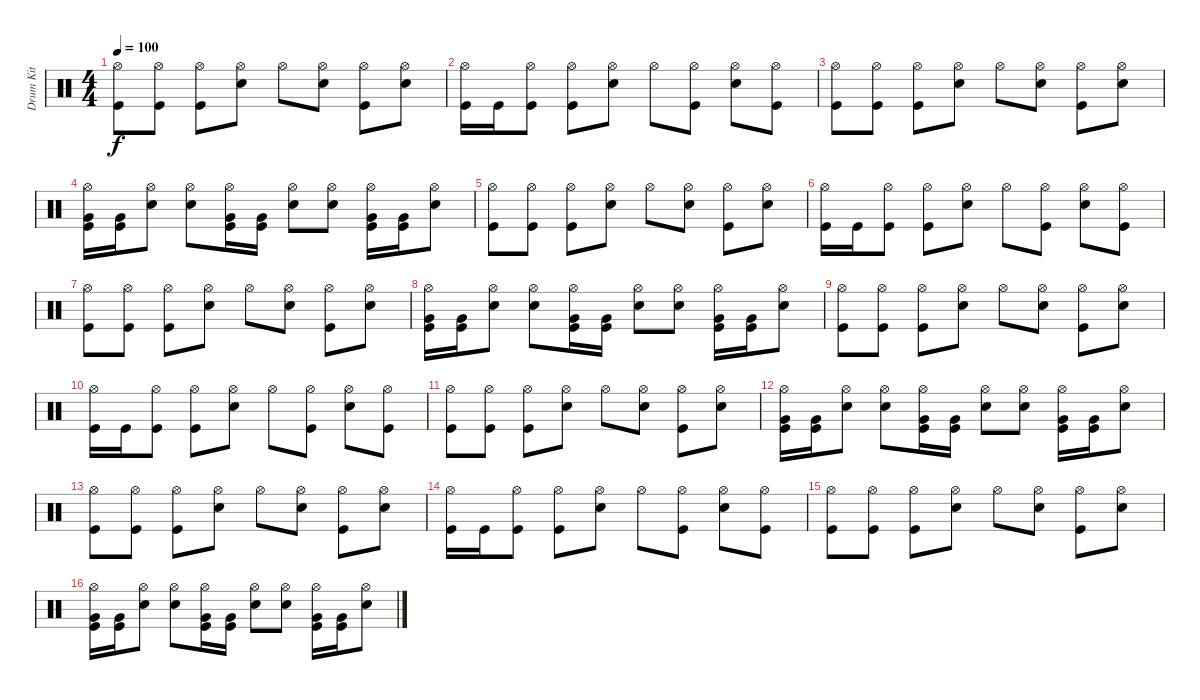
\track ("Drum Kit" "Drum Kit") {instrument percussion}
\staff {score}
\articulation defaults
\ts (4 4)
\tempo 100
\clef neutral
\ks c
("Hi-Hat (open)" "Kick (hit)").8{dy f} ("Hi-Hat (open)" "Kick (hit)").8 ("Hi-Hat (open)" "Kick (hit)").8 ("Hi-Hat (open)" "Snare (hit) 2").8 "Hi-Hat (open)".8 ("Hi-Hat (open)" "Snare (hit) 2").8 ("Hi-Hat (open)" "Kick (hit)").8 ("Hi-Hat (open)" "Snare (hit) 2").8 |
("Hi-Hat (open)" "Kick (hit)").16 "Kick (hit)".16 ("Hi-Hat (open)" "Kick (hit)").8 ("Hi-Hat (open)" "Kick (hit)").8 ("Hi-Hat (open)" "Snare (hit) 2").8 "Hi-Hat (open)".8 ("Hi-Hat (open)" "Kick (hit)").8 ("Hi-Hat (open)" "Snare (hit) 2").8 ("Hi-Hat (open)" "Kick (hit)").8 |
("Hi-Hat (open)" "Kick (hit)").8 ("Hi-Hat (open)" "Kick (hit)").8 ("Hi-Hat (open)" "Kick (hit)").8 ("Hi-Hat (open)" "Snare (hit) 2").8 "Hi-Hat (open)".8 ("Hi-Hat (open)" "Snare (hit) 2").8 ("Hi-Hat (open)" "Kick (hit)").8 ("Hi-Hat (open)" "Snare (hit) 2").8 |
("Hi-Hat (open)" "Very Low Tom (hit)" "Kick (hit)").16 ("Very Low Tom (hit)" "Kick (hit)").16 ("Hi-Hat (open)" "Snare (hit) 2").8 ("Hi-Hat (open)" "Snare (hit) 2").8 ("Hi-Hat (open)" "Very Low Tom (hit)" "Kick (hit)").16 ("Very Low Tom (hit)" "Kick (hit)").16 ("Hi-Hat (open)" "Snare (hit) 2").8 ("Hi-Hat (open)" "Snare (hit) 2").8 ("Hi-Hat (open)" "Very Low Tom (hit)" "Kick (hit)").16 ("Very Low Tom (hit)" "Kick (hit)").16 ("Hi-Hat (open)" "Snare (hit) 2").8 |
("Hi-Hat (open)" "Kick (hit)").8 ("Hi-Hat (open)" "Kick (hit)").8 ("Hi-Hat (open)" "Kick (hit)").8 ("Hi-Hat (open)" "Snare (hit) 2").8 "Hi-Hat (open)".8 ("Hi-Hat (open)" "Snare (hit) 2").8 ("Hi-Hat (open)" "Kick (hit)").8 ("Hi-Hat (open)" "Snare (hit) 2").8 |
("Hi-Hat (open)" "Kick (hit)").16 "Kick (hit)".16 ("Hi-Hat (open)" "Kick (hit)").8 ("Hi-Hat (open)" "Kick (hit)").8 ("Hi-Hat (open)" "Snare (hit) 2").8 "Hi-Hat (open)".8 ("Hi-Hat (open)" "Kick (hit)").8 ("Hi-Hat (open)" "Snare (hit) 2").8 ("Hi-Hat (open)" "Kick (hit)").8 |
("Hi-Hat (open)" "Kick (hit)").8 ("Hi-Hat (open)" "Kick (hit)").8 ("Hi-Hat (open)" "Kick (hit)").8 ("Hi-Hat (open)" "Snare (hit) 2").8 "Hi-Hat (open)".8 ("Hi-Hat (open)" "Snare (hit) 2").8 ("Hi-Hat (open)" "Kick (hit)").8 ("Hi-Hat (open)" "Snare (hit) 2").8 |
("Hi-Hat (open)" "Very Low Tom (hit)" "Kick (hit)").16 ("Very Low Tom (hit)" "Kick (hit)").16 ("Hi-Hat (open)" "Snare (hit) 2").8 ("Hi-Hat (open)" "Snare (hit) 2").8 ("Hi-Hat (open)" "Very Low Tom (hit)" "Kick (hit)").16 ("Very Low Tom (hit)" "Kick (hit)").16 ("Hi-Hat (open)" "Snare (hit) 2").8 ("Hi-Hat (open)" "Snare (hit) 2").8 ("Hi-Hat (open)" "Very Low Tom (hit)" "Kick (hit)").16 ("Very Low Tom (hit)" "Kick (hit)").16 ("Hi-Hat (open)" "Snare (hit) 2").8 |
("Hi-Hat (open)" "Kick (hit)").8 ("Hi-Hat (open)" "Kick (hit)").8 ("Hi-Hat (open)" "Kick (hit)").8 ("Hi-Hat (open)" "Snare (hit) 2").8 "Hi-Hat (open)".8 ("Hi-Hat (open)" "Snare (hit) 2").8 ("Hi-Hat (open)" "Kick (hit)").8 ("Hi-Hat (open)" "Snare (hit) 2").8 |
("Hi-Hat (open)" "Kick (hit)").16 "Kick (hit)".16 ("Hi-Hat (open)" "Kick (hit)").8 ("Hi-Hat (open)" "Kick (hit)").8 ("Hi-Hat (open)" "Snare (hit) 2").8 "Hi-Hat (open)".8 ("Hi-Hat (open)" "Kick (hit)").8 ("Hi-Hat (open)" "Snare (hit) 2").8 ("Hi-Hat (open)" "Kick (hit)").8 |
("Hi-Hat (open)" "Kick (hit)").8 ("Hi-Hat (open)" "Kick (hit)").8 ("Hi-Hat (open)" "Kick (hit)").8 ("Hi-Hat (open)" "Snare (hit) 2").8 "Hi-Hat (open)".8 ("Hi-Hat (open)" "Snare (hit) 2").8 ("Hi-Hat (open)" "Kick (hit)").8 ("Hi-Hat (open)" "Snare (hit) 2").8 |
("Hi-Hat (open)" "Very Low Tom (hit)" "Kick (hit)").16 ("Very Low Tom (hit)" "Kick (hit)").16 ("Hi-Hat (open)" "Snare (hit) 2").8 ("Hi-Hat (open)" "Snare (hit) 2").8 ("Hi-Hat (open)" "Very Low Tom (hit)" "Kick (hit)").16 ("Very Low Tom (hit)" "Kick (hit)").16 ("Hi-Hat (open)" "Snare (hit) 2").8 ("Hi-Hat (open)" "Snare (hit) 2").8 ("Hi-Hat (open)" "Very Low Tom (hit)" "Kick (hit)").16 ("Very Low Tom (hit)" "Kick (hit)").16 ("Hi-Hat (open)" "Snare (hit) 2").8 |
("Hi-Hat (open)" "Kick (hit)").8 ("Hi-Hat (open)" "Kick (hit)").8 ("Hi-Hat (open)" "Kick (hit)").8 ("Hi-Hat (open)" "Snare (hit) 2").8 "Hi-Hat (open)".8 ("Hi-Hat (open)" "Snare (hit) 2").8 ("Hi-Hat (open)" "Kick (hit)").8 ("Hi-Hat (open)" "Snare (hit) 2").8 |
("Hi-Hat (open)" "Kick (hit)").16 "Kick (hit)".16 ("Hi-Hat (open)" "Kick (hit)").8 ("Hi-Hat (open)" "Kick (hit)").8 ("Hi-Hat (open)" "Snare (hit) 2").8 "Hi-Hat (open)".8 ("Hi-Hat (open)" "Kick (hit)").8 ("Hi-Hat (open)" "Snare (hit) 2").8 ("Hi-Hat (open)" "Kick (hit)").8 |
("Hi-Hat (open)" "Kick (hit)").8 ("Hi-Hat (open)" "Kick (hit)").8 ("Hi-Hat (open)" "Kick (hit)").8 ("Hi-Hat (open)" "Snare (hit) 2").8 "Hi-Hat (open)".8 ("Hi-Hat (open)" "Snare (hit) 2").8 ("Hi-Hat (open)" "Kick (hit)").8 ("Hi-Hat (open)" "Snare (hit) 2").8 |
("Hi-Hat (open)" "Very Low Tom (hit)" "Kick (hit)").16 ("Very Low Tom (hit)" "Kick (hit)").16 ("Hi-Hat (open)" "Snare (hit) 2").8 ("Hi-Hat (open)" "Snare (hit) 2").8 ("Hi-Hat (open)" "Very Low Tom (hit)" "Kick (hit)").16 ("Very Low Tom (hit)" "Kick (hit)").16 ("Hi-Hat (open)" "Snare (hit) 2").8 ("Hi-Hat (open)" "Snare (hit) 2").8 ("Hi-Hat (open)" "Very Low Tom (hit)" "Kick (hit)").16 ("Very Low Tom (hit)" "Kick (hit)").16 ("Hi-Hat (open)" "Snare (hit) 2").8
